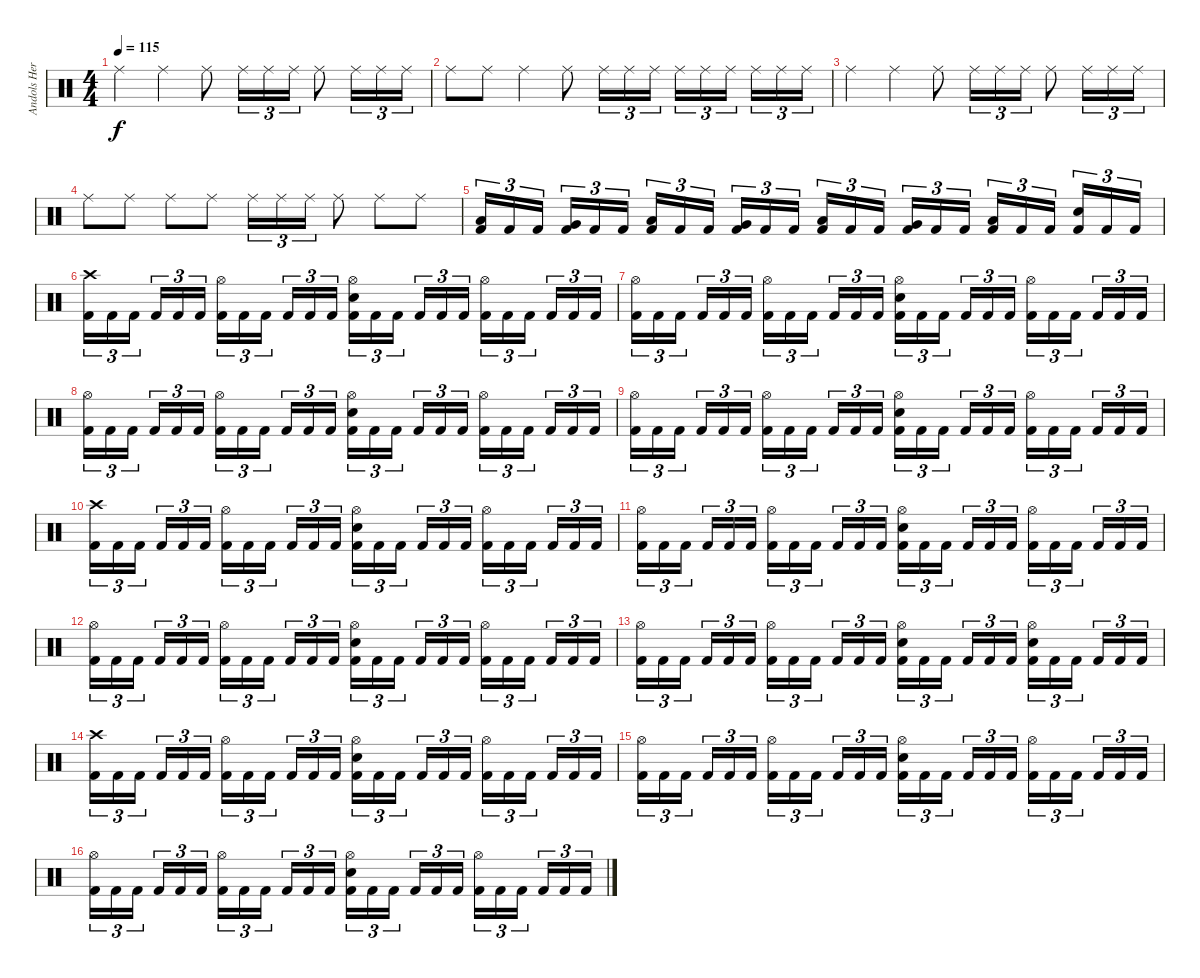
\track ("Andols Herrick" "Andols Her") {instrument percussion}
\staff {score}
\articulation defaults
\ts (4 4)
\tempo 115
\clef neutral
\ks c "Ride (middle)".4{dy f} "Ride (middle)".4 "Ride (middle)".8 "Ride (middle)".16{tu (3 2)} "Ride (middle)".16{tu (3 2)} "Ride (middle)".16{tu (3 2)} "Ride (middle)".8 "Ride (middle)".16{tu (3 2)} "Ride (middle)".16{tu (3 2)} "Ride (middle)".16{tu (3 2)}
|
"Ride (middle)".8 "Ride (middle)".8 "Ride (middle)".4 "Ride (middle)".8 "Ride (middle)".16{tu (3 2)} "Ride (middle)".16{tu (3 2)} "Ride (middle)".16{tu (3 2)} "Ride (middle)".16{tu (3 2)} "Ride (middle)".16{tu (3 2)} "Ride (middle)".16{tu (3 2) beam splitsecondary} "Ride (middle)".16{tu (3 2)} "Ride (middle)".16{tu (3 2)} "Ride (middle)".16{tu (3 2)} |
"Ride (middle)".4 "Ride (middle)".4 "Ride (middle)".8 "Ride (middle)".16{tu (3 2)} "Ride (middle)".16{tu (3 2)} "Ride (middle)".16{tu (3 2)} "Ride (middle)".8 "Ride (middle)".16{tu (3 2)} "Ride (middle)".16{tu (3 2)} "Ride (middle)".16{tu (3 2)} |
"Ride (middle)".8 "Ride (middle)".8 "Ride (middle)".8 "Ride (middle)".8 "Ride (middle)".16{tu (3 2)} "Ride (middle)".16{tu (3 2)} "Ride (middle)".16{tu (3 2)} "Ride (middle)".8 "Ride (middle)".8 "Ride (middle)".8 |
("Low Tom (hit)" "Kick (hit) 2").16{tu (3 2)} "Kick (hit) 2".16{tu (3 2)} "Kick (hit) 2".16{tu (3 2) beam splitsecondary} ("Very Low Tom (hit)" "Kick (hit) 2").16{tu (3 2)} "Kick (hit) 2".16{tu (3 2)} "Kick (hit) 2".16{tu (3 2)} ("Low Tom (hit)" "Kick (hit) 2").16{tu (3 2)} "Kick (hit) 2".16{tu (3 2)} "Kick (hit) 2".16{tu (3 2) beam splitsecondary} ("Very Low Tom (hit)" "Kick (hit) 2").16{tu (3 2)} "Kick (hit) 2".16{tu (3 2)} "Kick (hit) 2".16{tu (3 2)} ("Low Tom (hit)" "Kick (hit) 2").16{tu (3 2)} "Kick (hit) 2".16{tu (3 2)} "Kick (hit) 2".16{tu (3 2) beam splitsecondary} ("Very Low Tom (hit)" "Kick (hit) 2").16{tu (3 2)} "Kick (hit) 2".16{tu (3 2)} "Kick (hit) 2".16{tu (3 2)} ("Low Tom (hit)" "Kick (hit) 2").16{tu (3 2)} "Kick (hit) 2".16{tu (3 2)} "Kick (hit) 2".16{tu (3 2) beam splitsecondary} ("Electric Snare (hit)" "Kick (hit) 2").16{tu (3 2)} "Kick (hit) 2".16{tu (3 2)} "Kick (hit) 2".16{tu (3 2)} |
("Crash high (hit)" "Kick (hit) 2").16{tu (3 2)} "Kick (hit) 2".16{tu (3 2)} "Kick (hit) 2".16{tu (3 2) beam splitsecondary} "Kick (hit) 2".16{tu (3 2)} "Kick (hit) 2".16{tu (3 2)} "Kick (hit) 2".16{tu (3 2)} ("Hi-Hat (open)" "Kick (hit) 2").16{tu (3 2)} "Kick (hit) 2".16{tu (3 2)} "Kick (hit) 2".16{tu (3 2) beam splitsecondary} "Kick (hit) 2".16{tu (3 2)} "Kick (hit) 2".16{tu (3 2)} "Kick (hit) 2".16{tu (3 2)} ("Hi-Hat (open)" "Electric Snare (hit)" "Kick (hit) 2").16{tu (3 2)} "Kick (hit) 2".16{tu (3 2)} "Kick (hit) 2".16{tu (3 2) beam splitsecondary} "Kick (hit) 2".16{tu (3 2)} "Kick (hit) 2".16{tu (3 2)} "Kick (hit) 2".16{tu (3 2)} ("Hi-Hat (open)" "Kick (hit) 2").16{tu (3 2)} "Kick (hit) 2".16{tu (3 2)} "Kick (hit) 2".16{tu (3 2) beam splitsecondary} "Kick (hit) 2".16{tu (3 2)} "Kick (hit) 2".16{tu (3 2)} "Kick (hit) 2".16{tu (3 2)} |
("Hi-Hat (open)" "Kick (hit) 2").16{tu (3 2)} "Kick (hit) 2".16{tu (3 2)} "Kick (hit) 2".16{tu (3 2) beam splitsecondary} "Kick (hit) 2".16{tu (3 2)} "Kick (hit) 2".16{tu (3 2)} "Kick (hit) 2".16{tu (3 2)} ("Hi-Hat (open)" "Kick (hit) 2").16{tu (3 2)} "Kick (hit) 2".16{tu (3 2)} "Kick (hit) 2".16{tu (3 2) beam splitsecondary} "Kick (hit) 2".16{tu (3 2)} "Kick (hit) 2".16{tu (3 2)} "Kick (hit) 2".16{tu (3 2)} ("Hi-Hat (open)" "Electric Snare (hit)" "Kick (hit) 2").16{tu (3 2)} "Kick (hit) 2".16{tu (3 2)} "Kick (hit) 2".16{tu (3 2) beam splitsecondary} "Kick (hit) 2".16{tu (3 2)} "Kick (hit) 2".16{tu (3 2)} "Kick (hit) 2".16{tu (3 2)} ("Hi-Hat (open)" "Kick (hit) 2").16{tu (3 2)} "Kick (hit) 2".16{tu (3 2)} "Kick (hit) 2".16{tu (3 2) beam splitsecondary} "Kick (hit) 2".16{tu (3 2)} "Kick (hit) 2".16{tu (3 2)} "Kick (hit) 2".16{tu (3 2)} |
("Hi-Hat (open)" "Kick (hit) 2").16{tu (3 2)} "Kick (hit) 2".16{tu (3 2)} "Kick (hit) 2".16{tu (3 2) beam splitsecondary} "Kick (hit) 2".16{tu (3 2)} "Kick (hit) 2".16{tu (3 2)} "Kick (hit) 2".16{tu (3 2)} ("Hi-Hat (open)" "Kick (hit) 2").16{tu (3 2)} "Kick (hit) 2".16{tu (3 2)} "Kick (hit) 2".16{tu (3 2) beam splitsecondary} "Kick (hit) 2".16{tu (3 2)} "Kick (hit) 2".16{tu (3 2)} "Kick (hit) 2".16{tu (3 2)} ("Hi-Hat (open)" "Electric Snare (hit)" "Kick (hit) 2").16{tu (3 2)} "Kick (hit) 2".16{tu (3 2)} "Kick (hit) 2".16{tu (3 2) beam splitsecondary} "Kick (hit) 2".16{tu (3 2)} "Kick (hit) 2".16{tu (3 2)} "Kick (hit) 2".16{tu (3 2)} ("Hi-Hat (open)" "Kick (hit) 2").16{tu (3 2)} "Kick (hit) 2".16{tu (3 2)} "Kick (hit) 2".16{tu (3 2) beam splitsecondary} "Kick (hit) 2".16{tu (3 2)} "Kick (hit) 2".16{tu (3 2)} "Kick (hit) 2".16{tu (3 2)} |
("Hi-Hat (open)" "Kick (hit) 2").16{tu (3 2)} "Kick (hit) 2".16{tu (3 2)} "Kick (hit) 2".16{tu (3 2) beam splitsecondary} "Kick (hit) 2".16{tu (3 2)} "Kick (hit) 2".16{tu (3 2)} "Kick (hit) 2".16{tu (3 2)} ("Hi-Hat (open)" "Kick (hit) 2").16{tu (3 2)} "Kick (hit) 2".16{tu (3 2)} "Kick (hit) 2".16{tu (3 2) beam splitsecondary} "Kick (hit) 2".16{tu (3 2)} "Kick (hit) 2".16{tu (3 2)} "Kick (hit) 2".16{tu (3 2)} ("Hi-Hat (open)" "Electric Snare (hit)" "Kick (hit) 2").16{tu (3 2)} "Kick (hit) 2".16{tu (3 2)} "Kick (hit) 2".16{tu (3 2) beam splitsecondary} "Kick (hit) 2".16{tu (3 2)} "Kick (hit) 2".16{tu (3 2)} "Kick (hit) 2".16{tu (3 2)} ("Hi-Hat (open)" "Kick (hit) 2").16{tu (3 2)} "Kick (hit) 2".16{tu (3 2)} "Kick (hit) 2".16{tu (3 2) beam splitsecondary} "Kick (hit) 2".16{tu (3 2)} "Kick (hit) 2".16{tu (3 2)} "Kick (hit) 2".16{tu (3 2)} |
("Crash high (hit)" "Kick (hit) 2").16{tu (3 2)} "Kick (hit) 2".16{tu (3 2)} "Kick (hit) 2".16{tu (3 2) beam splitsecondary} "Kick (hit) 2".16{tu (3 2)} "Kick (hit) 2".16{tu (3 2)} "Kick (hit) 2".16{tu (3 2)} ("Hi-Hat (open)" "Kick (hit) 2").16{tu (3 2)} "Kick (hit) 2".16{tu (3 2)} "Kick (hit) 2".16{tu (3 2) beam splitsecondary} "Kick (hit) 2".16{tu (3 2)} "Kick (hit) 2".16{tu (3 2)} "Kick (hit) 2".16{tu (3 2)} ("Hi-Hat (open)" "Electric Snare (hit)" "Kick (hit) 2").16{tu (3 2)} "Kick (hit) 2".16{tu (3 2)} "Kick (hit) 2".16{tu (3 2) beam splitsecondary} "Kick (hit) 2".16{tu (3 2)} "Kick (hit) 2".16{tu (3 2)} "Kick (hit) 2".16{tu (3 2)} ("Hi-Hat (open)" "Kick (hit) 2").16{tu (3 2)} "Kick (hit) 2".16{tu (3 2)} "Kick (hit) 2".16{tu (3 2) beam splitsecondary} "Kick (hit) 2".16{tu (3 2)} "Kick (hit) 2".16{tu (3 2)} "Kick (hit) 2".16{tu (3 2)} |
("Hi-Hat (open)" "Kick (hit) 2").16{tu (3 2)} "Kick (hit) 2".16{tu (3 2)} "Kick (hit) 2".16{tu (3 2) beam splitsecondary} "Kick (hit) 2".16{tu (3 2)} "Kick (hit) 2".16{tu (3 2)} "Kick (hit) 2".16{tu (3 2)} ("Hi-Hat (open)" "Kick (hit) 2").16{tu (3 2)} "Kick (hit) 2".16{tu (3 2)} "Kick (hit) 2".16{tu (3 2) beam splitsecondary} "Kick (hit) 2".16{tu (3 2)} "Kick (hit) 2".16{tu (3 2)} "Kick (hit) 2".16{tu (3 2)} ("Hi-Hat (open)" "Electric Snare (hit)" "Kick (hit) 2").16{tu (3 2)} "Kick (hit) 2".16{tu (3 2)} "Kick (hit) 2".16{tu (3 2) beam splitsecondary} "Kick (hit) 2".16{tu (3 2)} "Kick (hit) 2".16{tu (3 2)} "Kick (hit) 2".16{tu (3 2)} ("Hi-Hat (open)" "Kick (hit) 2").16{tu (3 2)} "Kick (hit) 2".16{tu (3 2)} "Kick (hit) 2".16{tu (3 2) beam splitsecondary} "Kick (hit) 2".16{tu (3 2)} "Kick (hit) 2".16{tu (3 2)} "Kick (hit) 2".16{tu (3 2)} |
("Hi-Hat (open)" "Kick (hit) 2").16{tu (3 2)} "Kick (hit) 2".16{tu (3 2)} "Kick (hit) 2".16{tu (3 2) beam splitsecondary} "Kick (hit) 2".16{tu (3 2)} "Kick (hit) 2".16{tu (3 2)} "Kick (hit) 2".16{tu (3 2)} ("Hi-Hat (open)" "Kick (hit) 2").16{tu (3 2)} "Kick (hit) 2".16{tu (3 2)} "Kick (hit) 2".16{tu (3 2) beam splitsecondary} "Kick (hit) 2".16{tu (3 2)} "Kick (hit) 2".16{tu (3 2)} "Kick (hit) 2".16{tu (3 2)} ("Hi-Hat (open)" "Electric Snare (hit)" "Kick (hit) 2").16{tu (3 2)} "Kick (hit) 2".16{tu (3 2)} "Kick (hit) 2".16{tu (3 2) beam splitsecondary} "Kick (hit) 2".16{tu (3 2)} "Kick (hit) 2".16{tu (3 2)} "Kick (hit) 2".16{tu (3 2)} ("Hi-Hat (open)" "Kick (hit) 2").16{tu (3 2)} "Kick (hit) 2".16{tu (3 2)} "Kick (hit) 2".16{tu (3 2) beam splitsecondary} "Kick (hit) 2".16{tu (3 2)} "Kick (hit) 2".16{tu (3 2)} "Kick (hit) 2".16{tu (3 2)} |
("Hi-Hat (open)" "Kick (hit) 2").16{tu (3 2)} "Kick (hit) 2".16{tu (3 2)} "Kick (hit) 2".16{tu (3 2) beam splitsecondary} "Kick (hit) 2".16{tu (3 2)} "Kick (hit) 2".16{tu (3 2)} "Kick (hit) 2".16{tu (3 2)} ("Hi-Hat (open)" "Kick (hit) 2").16{tu (3 2)} "Kick (hit) 2".16{tu (3 2)} "Kick (hit) 2".16{tu (3 2) beam splitsecondary} "Kick (hit) 2".16{tu (3 2)} "Kick (hit) 2".16{tu (3 2)} "Kick (hit) 2".16{tu (3 2)} ("Hi-Hat (open)" "Electric Snare (hit)" "Kick (hit) 2").16{tu (3 2)} "Kick (hit) 2".16{tu (3 2)} "Kick (hit) 2".16{tu (3 2) beam splitsecondary} "Kick (hit) 2".16{tu (3 2)} "Kick (hit) 2".16{tu (3 2)} "Kick (hit) 2".16{tu (3 2)} ("Hi-Hat (open)" "Electric Snare (hit)" "Kick (hit) 2").16{tu (3 2)} "Kick (hit) 2".16{tu (3 2)} "Kick (hit) 2".16{tu (3 2) beam splitsecondary} "Kick (hit) 2".16{tu (3 2)} "Kick (hit) 2".16{tu (3 2)} "Kick (hit) 2".16{tu (3 2)} |
("Crash high (hit)" "Kick (hit) 2").16{tu (3 2)} "Kick (hit) 2".16{tu (3 2)} "Kick (hit) 2".16{tu (3 2) beam splitsecondary} "Kick (hit) 2".16{tu (3 2)} "Kick (hit) 2".16{tu (3 2)} "Kick (hit) 2".16{tu (3 2)} ("Hi-Hat (open)" "Kick (hit) 2").16{tu (3 2)} "Kick (hit) 2".16{tu (3 2)} "Kick (hit) 2".16{tu (3 2) beam splitsecondary} "Kick (hit) 2".16{tu (3 2)} "Kick (hit) 2".16{tu (3 2)} "Kick (hit) 2".16{tu (3 2)} ("Hi-Hat (open)" "Electric Snare (hit)" "Kick (hit) 2").16{tu (3 2)} "Kick (hit) 2".16{tu (3 2)} "Kick (hit) 2".16{tu (3 2) beam splitsecondary} "Kick (hit) 2".16{tu (3 2)} "Kick (hit) 2".16{tu (3 2)} "Kick (hit) 2".16{tu (3 2)} ("Hi-Hat (open)" "Kick (hit) 2").16{tu (3 2)} "Kick (hit) 2".16{tu (3 2)} "Kick (hit) 2".16{tu (3 2) beam splitsecondary} "Kick (hit) 2".16{tu (3 2)} "Kick (hit) 2".16{tu (3 2)} "Kick (hit) 2".16{tu (3 2)} |
("Hi-Hat (open)" "Kick (hit) 2").16{tu (3 2)} "Kick (hit) 2".16{tu (3 2)} "Kick (hit) 2".16{tu (3 2) beam splitsecondary} "Kick (hit) 2".16{tu (3 2)} "Kick (hit) 2".16{tu (3 2)} "Kick (hit) 2".16{tu (3 2)} ("Hi-Hat (open)" "Kick (hit) 2").16{tu (3 2)} "Kick (hit) 2".16{tu (3 2)} "Kick (hit) 2".16{tu (3 2) beam splitsecondary} "Kick (hit) 2".16{tu (3 2)} "Kick (hit) 2".16{tu (3 2)} "Kick (hit) 2".16{tu (3 2)} ("Hi-Hat (open)" "Electric Snare (hit)" "Kick (hit) 2").16{tu (3 2)} "Kick (hit) 2".16{tu (3 2)} "Kick (hit) 2".16{tu (3 2) beam splitsecondary} "Kick (hit) 2".16{tu (3 2)} "Kick (hit) 2".16{tu (3 2)} "Kick (hit) 2".16{tu (3 2)} ("Hi-Hat (open)" "Kick (hit) 2").16{tu (3 2)} "Kick (hit) 2".16{tu (3 2)} "Kick (hit) 2".16{tu (3 2) beam splitsecondary} "Kick (hit) 2".16{tu (3 2)} "Kick (hit) 2".16{tu (3 2)} "Kick (hit) 2".16{tu (3 2)} |
("Hi-Hat (open)" "Kick (hit) 2").16{tu (3 2)} "Kick (hit) 2".16{tu (3 2)} "Kick (hit) 2".16{tu (3 2) beam splitsecondary} "Kick (hit) 2".16{tu (3 2)} "Kick (hit) 2".16{tu (3 2)} "Kick (hit) 2".16{tu (3 2)} ("Hi-Hat (open)" "Kick (hit) 2").16{tu (3 2)} "Kick (hit) 2".16{tu (3 2)} "Kick (hit) 2".16{tu (3 2) beam splitsecondary} "Kick (hit) 2".16{tu (3 2)} "Kick (hit) 2".16{tu (3 2)} "Kick (hit) 2".16{tu (3 2)} ("Hi-Hat (open)" "Electric Snare (hit)" "Kick (hit) 2").16{tu (3 2)} "Kick (hit) 2".16{tu (3 2)} "Kick (hit) 2".16{tu (3 2) beam splitsecondary} "Kick (hit) 2".16{tu (3 2)} "Kick (hit) 2".16{tu (3 2)} "Kick (hit) 2".16{tu (3 2)} ("Hi-Hat (open)" "Kick (hit) 2").16{tu (3 2)} "Kick (hit) 2".16{tu (3 2)} "Kick (hit) 2".16{tu (3 2) beam splitsecondary} "Kick (hit) 2".16{tu (3 2)} "Kick (hit) 2".16{tu (3 2)} "Kick (hit) 2".16{tu (3 2)}
